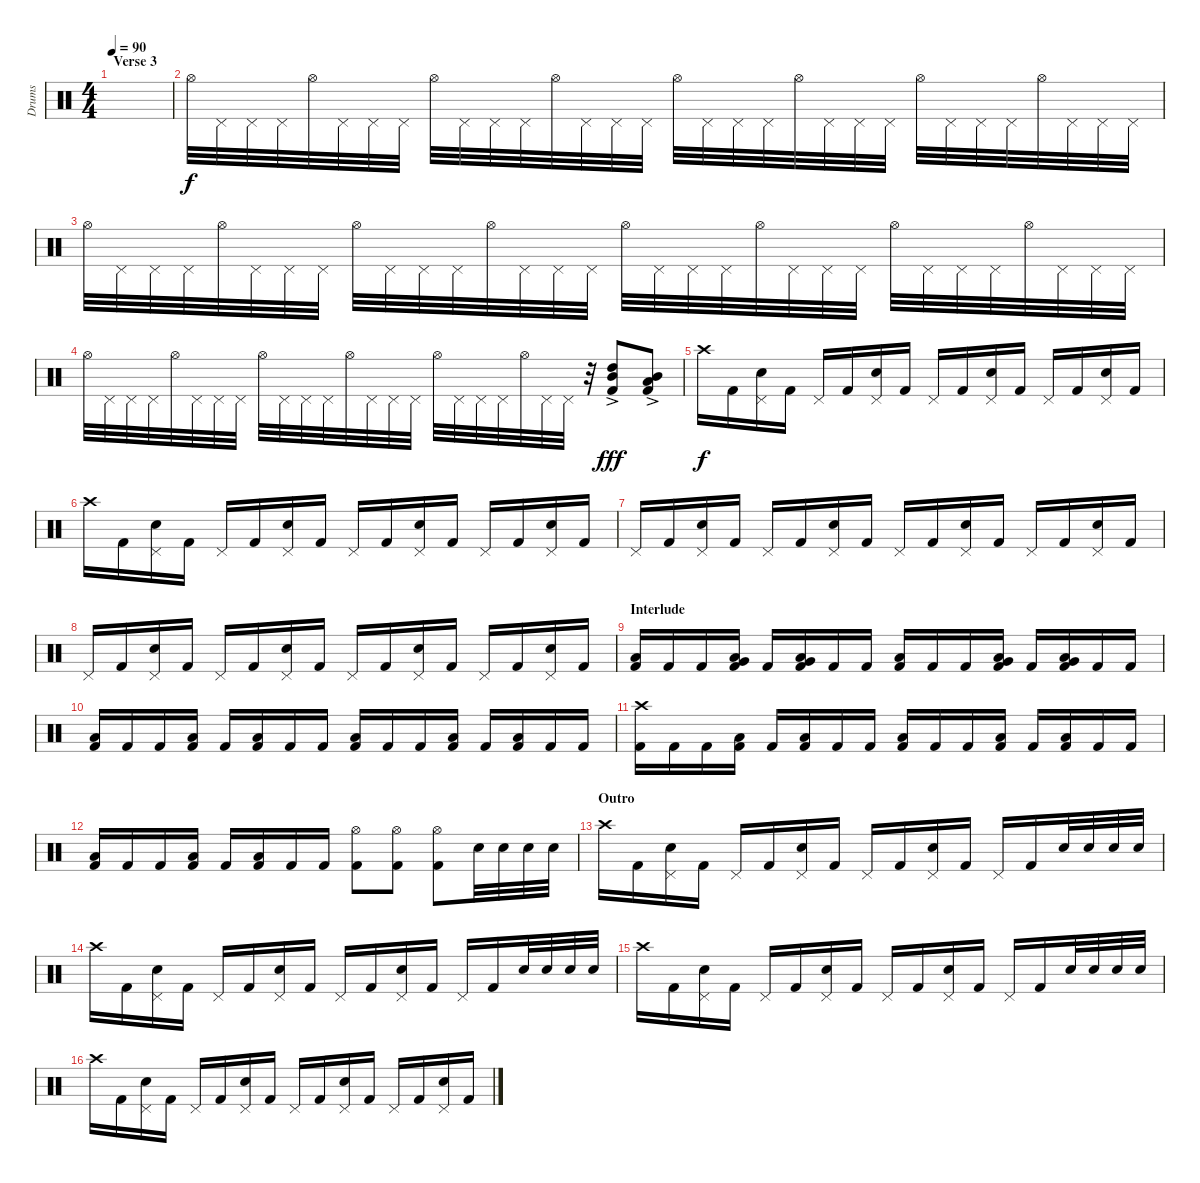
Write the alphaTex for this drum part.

\track ("Drums" "Drums") {instrument percussion}
\staff {score}
\articulation defaults
\ts (4 4)
\section ("" "Verse 3")
\tempo 90
\clef neutral
\ks c
|
"Hi-Hat (open)".32 "Pedal Hi-Hat (hit)".32 "Pedal Hi-Hat (hit)".32 "Pedal Hi-Hat (hit)".32 "Hi-Hat (open)".32 "Pedal Hi-Hat (hit)".32 "Pedal Hi-Hat (hit)".32 "Pedal Hi-Hat (hit)".32 "Hi-Hat (open)".32 "Pedal Hi-Hat (hit)".32 "Pedal Hi-Hat (hit)".32 "Pedal Hi-Hat (hit)".32 "Hi-Hat (open)".32 "Pedal Hi-Hat (hit)".32 "Pedal Hi-Hat (hit)".32 "Pedal Hi-Hat (hit)".32 "Hi-Hat (open)".32 "Pedal Hi-Hat (hit)".32 "Pedal Hi-Hat (hit)".32 "Pedal Hi-Hat (hit)".32 "Hi-Hat (open)".32 "Pedal Hi-Hat (hit)".32 "Pedal Hi-Hat (hit)".32 "Pedal Hi-Hat (hit)".32 "Hi-Hat (open)".32 "Pedal Hi-Hat (hit)".32 "Pedal Hi-Hat (hit)".32 "Pedal Hi-Hat (hit)".32 "Hi-Hat (open)".32 "Pedal Hi-Hat (hit)".32 "Pedal Hi-Hat (hit)".32 "Pedal Hi-Hat (hit)".32 |
"Hi-Hat (open)".32 "Pedal Hi-Hat (hit)".32 "Pedal Hi-Hat (hit)".32 "Pedal Hi-Hat (hit)".32 "Hi-Hat (open)".32 "Pedal Hi-Hat (hit)".32 "Pedal Hi-Hat (hit)".32 "Pedal Hi-Hat (hit)".32 "Hi-Hat (open)".32 "Pedal Hi-Hat (hit)".32 "Pedal Hi-Hat (hit)".32 "Pedal Hi-Hat (hit)".32 "Hi-Hat (open)".32 "Pedal Hi-Hat (hit)".32 "Pedal Hi-Hat (hit)".32 "Pedal Hi-Hat (hit)".32 "Hi-Hat (open)".32 "Pedal Hi-Hat (hit)".32 "Pedal Hi-Hat (hit)".32 "Pedal Hi-Hat (hit)".32 "Hi-Hat (open)".32 "Pedal Hi-Hat (hit)".32 "Pedal Hi-Hat (hit)".32 "Pedal Hi-Hat (hit)".32 "Hi-Hat (open)".32 "Pedal Hi-Hat (hit)".32 "Pedal Hi-Hat (hit)".32 "Pedal Hi-Hat (hit)".32 "Hi-Hat (open)".32 "Pedal Hi-Hat (hit)".32 "Pedal Hi-Hat (hit)".32 "Pedal Hi-Hat (hit)".32 |
"Hi-Hat (open)".32 "Pedal Hi-Hat (hit)".32 "Pedal Hi-Hat (hit)".32 "Pedal Hi-Hat (hit)".32 "Hi-Hat (open)".32 "Pedal Hi-Hat (hit)".32 "Pedal Hi-Hat (hit)".32 "Pedal Hi-Hat (hit)".32 "Hi-Hat (open)".32 "Pedal Hi-Hat (hit)".32 "Pedal Hi-Hat (hit)".32 "Pedal Hi-Hat (hit)".32 "Hi-Hat (open)".32 "Pedal Hi-Hat (hit)".32 "Pedal Hi-Hat (hit)".32 "Pedal Hi-Hat (hit)".32 "Hi-Hat (open)".32 "Pedal Hi-Hat (hit)".32 "Pedal Hi-Hat (hit)".32 "Pedal Hi-Hat (hit)".32 "Hi-Hat (open)".32 "Pedal Hi-Hat (hit)".32 "Pedal Hi-Hat (hit)".32 r.32 ("High Tom (hit)"{ac} "Mid Tom (hit)"{ac} "Kick (hit) 2").8{dy fff} ("Mid Tom (hit)"{ac} "Low Tom (hit)"{ac} "Kick (hit) 2").8 |
"Crash high (hit)".16{dy f} "Kick (hit) 2".16 ("Pedal Hi-Hat (hit)" "Snare (hit) 2").16 "Kick (hit) 2".16 "Pedal Hi-Hat (hit)".16 "Kick (hit) 2".16 ("Pedal Hi-Hat (hit)" "Snare (hit) 2").16 "Kick (hit) 2".16 "Pedal Hi-Hat (hit)".16 "Kick (hit) 2".16 ("Pedal Hi-Hat (hit)" "Snare (hit) 2").16 "Kick (hit) 2".16 "Pedal Hi-Hat (hit)".16 "Kick (hit) 2".16 ("Pedal Hi-Hat (hit)" "Snare (hit) 2").16 "Kick (hit) 2".16 |
"Crash high (hit)".16 "Kick (hit) 2".16 ("Pedal Hi-Hat (hit)" "Snare (hit) 2").16 "Kick (hit) 2".16 "Pedal Hi-Hat (hit)".16 "Kick (hit) 2".16 ("Pedal Hi-Hat (hit)" "Snare (hit) 2").16 "Kick (hit) 2".16 "Pedal Hi-Hat (hit)".16 "Kick (hit) 2".16 ("Pedal Hi-Hat (hit)" "Snare (hit) 2").16 "Kick (hit) 2".16 "Pedal Hi-Hat (hit)".16 "Kick (hit) 2".16 ("Pedal Hi-Hat (hit)" "Snare (hit) 2").16 "Kick (hit) 2".16 |
"Pedal Hi-Hat (hit)".16 "Kick (hit) 2".16 ("Pedal Hi-Hat (hit)" "Snare (hit) 2").16 "Kick (hit) 2".16 "Pedal Hi-Hat (hit)".16 "Kick (hit) 2".16 ("Pedal Hi-Hat (hit)" "Snare (hit) 2").16 "Kick (hit) 2".16 "Pedal Hi-Hat (hit)".16 "Kick (hit) 2".16 ("Pedal Hi-Hat (hit)" "Snare (hit) 2").16 "Kick (hit) 2".16 "Pedal Hi-Hat (hit)".16 "Kick (hit) 2".16 ("Pedal Hi-Hat (hit)" "Snare (hit) 2").16 "Kick (hit) 2".16 |
"Pedal Hi-Hat (hit)".16 "Kick (hit) 2".16 ("Pedal Hi-Hat (hit)" "Snare (hit) 2").16 "Kick (hit) 2".16 "Pedal Hi-Hat (hit)".16 "Kick (hit) 2".16 ("Pedal Hi-Hat (hit)" "Snare (hit) 2").16 "Kick (hit) 2".16 "Pedal Hi-Hat (hit)".16 "Kick (hit) 2".16 ("Pedal Hi-Hat (hit)" "Snare (hit) 2").16 "Kick (hit) 2".16 "Pedal Hi-Hat (hit)".16 "Kick (hit) 2".16 ("Pedal Hi-Hat (hit)" "Snare (hit) 2").16 "Kick (hit) 2".16 |
\section ("" "Interlude")
("Low Tom (hit)" "Kick (hit) 2").16 "Kick (hit) 2".16 "Kick (hit) 2".16 ("Very Low Tom (hit)" "Low Tom (hit)" "Kick (hit) 2").16 "Kick (hit) 2".16 ("Very Low Tom (hit)" "Low Tom (hit)" "Kick (hit) 2").16 "Kick (hit) 2".16 "Kick (hit) 2".16 ("Low Tom (hit)" "Kick (hit) 2").16 "Kick (hit) 2".16 "Kick (hit) 2".16 ("Very Low Tom (hit)" "Low Tom (hit)" "Kick (hit) 2").16 "Kick (hit) 2".16 ("Very Low Tom (hit)" "Low Tom (hit)" "Kick (hit) 2").16 "Kick (hit) 2".16 "Kick (hit) 2".16 |
("Low Tom (hit)" "Kick (hit) 2").16 "Kick (hit) 2".16 "Kick (hit) 2".16 ("Low Tom (hit)" "Kick (hit) 2").16 "Kick (hit) 2".16 ("Low Tom (hit)" "Kick (hit) 2").16 "Kick (hit) 2".16 "Kick (hit) 2".16 ("Low Tom (hit)" "Kick (hit) 2").16 "Kick (hit) 2".16 "Kick (hit) 2".16 ("Low Tom (hit)" "Kick (hit) 2").16 "Kick (hit) 2".16 ("Low Tom (hit)" "Kick (hit) 2").16 "Kick (hit) 2".16 "Kick (hit) 2".16 |
("Crash high (hit)" "Kick (hit) 2").16 "Kick (hit) 2".16 "Kick (hit) 2".16 ("Low Tom (hit)" "Kick (hit) 2").16 "Kick (hit) 2".16 ("Low Tom (hit)" "Kick (hit) 2").16 "Kick (hit) 2".16 "Kick (hit) 2".16 ("Low Tom (hit)" "Kick (hit) 2").16 "Kick (hit) 2".16 "Kick (hit) 2".16 ("Low Tom (hit)" "Kick (hit) 2").16 "Kick (hit) 2".16 ("Low Tom (hit)" "Kick (hit) 2").16 "Kick (hit) 2".16 "Kick (hit) 2".16 |
("Low Tom (hit)" "Kick (hit) 2").16 "Kick (hit) 2".16 "Kick (hit) 2".16 ("Low Tom (hit)" "Kick (hit) 2").16 "Kick (hit) 2".16 ("Low Tom (hit)" "Kick (hit) 2").16 "Kick (hit) 2".16 "Kick (hit) 2".16 ("Hi-Hat (open)" "Kick (hit) 2").8 ("Hi-Hat (open)" "Kick (hit) 2").8 ("Hi-Hat (open)" "Kick (hit) 2").8 "Electric Snare (hit)".32 "Electric Snare (hit)".32 "Electric Snare (hit)".32 "Electric Snare (hit)".32 |
\section ("" "Outro")
"Crash high (hit)".16 "Kick (hit) 2".16 ("Pedal Hi-Hat (hit)" "Snare (hit) 2").16 "Kick (hit) 2".16 "Pedal Hi-Hat (hit)".16 "Kick (hit) 2".16 ("Pedal Hi-Hat (hit)" "Snare (hit) 2").16 "Kick (hit) 2".16 "Pedal Hi-Hat (hit)".16 "Kick (hit) 2".16 ("Pedal Hi-Hat (hit)" "Snare (hit) 2").16 "Kick (hit) 2".16 "Pedal Hi-Hat (hit)".16 "Kick (hit) 2".16 "Electric Snare (hit)".32 "Electric Snare (hit)".32 "Electric Snare (hit)".32 "Electric Snare (hit)".32 |
"Crash high (hit)".16 "Kick (hit) 2".16 ("Pedal Hi-Hat (hit)" "Snare (hit) 2").16 "Kick (hit) 2".16 "Pedal Hi-Hat (hit)".16 "Kick (hit) 2".16 ("Pedal Hi-Hat (hit)" "Snare (hit) 2").16 "Kick (hit) 2".16 "Pedal Hi-Hat (hit)".16 "Kick (hit) 2".16 ("Pedal Hi-Hat (hit)" "Snare (hit) 2").16 "Kick (hit) 2".16 "Pedal Hi-Hat (hit)".16 "Kick (hit) 2".16 "Electric Snare (hit)".32 "Electric Snare (hit)".32 "Electric Snare (hit)".32 "Electric Snare (hit)".32 |
"Crash high (hit)".16 "Kick (hit) 2".16 ("Pedal Hi-Hat (hit)" "Snare (hit) 2").16 "Kick (hit) 2".16 "Pedal Hi-Hat (hit)".16 "Kick (hit) 2".16 ("Pedal Hi-Hat (hit)" "Snare (hit) 2").16 "Kick (hit) 2".16 "Pedal Hi-Hat (hit)".16 "Kick (hit) 2".16 ("Pedal Hi-Hat (hit)" "Snare (hit) 2").16 "Kick (hit) 2".16 "Pedal Hi-Hat (hit)".16 "Kick (hit) 2".16 "Electric Snare (hit)".32 "Electric Snare (hit)".32 "Electric Snare (hit)".32 "Electric Snare (hit)".32 |
"Crash high (hit)".16 "Kick (hit) 2".16 ("Pedal Hi-Hat (hit)" "Snare (hit) 2").16 "Kick (hit) 2".16 "Pedal Hi-Hat (hit)".16 "Kick (hit) 2".16 ("Pedal Hi-Hat (hit)" "Snare (hit) 2").16 "Kick (hit) 2".16 "Pedal Hi-Hat (hit)".16 "Kick (hit) 2".16 ("Pedal Hi-Hat (hit)" "Snare (hit) 2").16 "Kick (hit) 2".16 "Pedal Hi-Hat (hit)".16 "Kick (hit) 2".16 ("Pedal Hi-Hat (hit)" "Snare (hit) 2").16 "Kick (hit) 2".16
